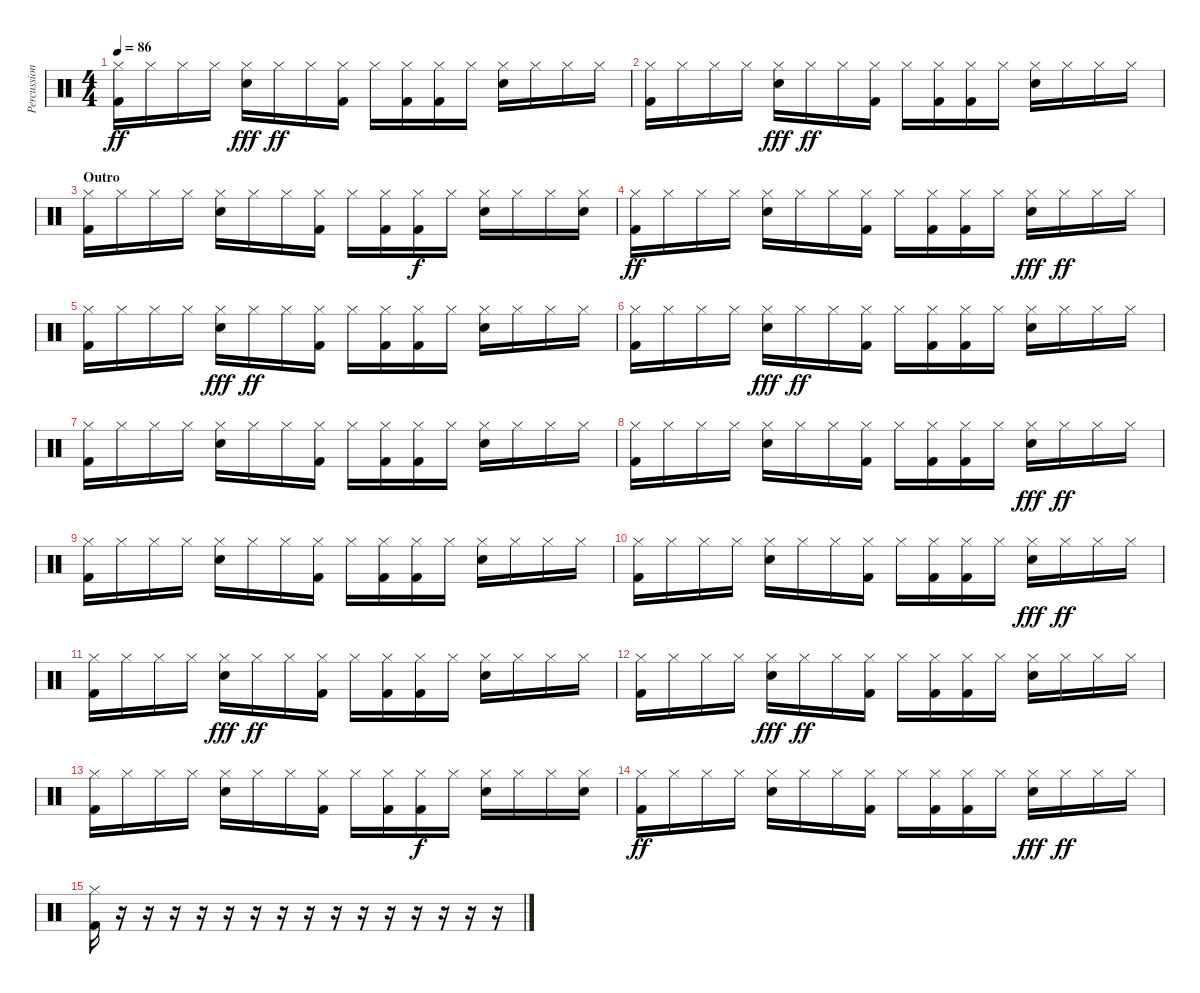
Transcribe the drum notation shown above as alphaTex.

\track ("Percussion" "Percussion") {instrument percussion}
\staff {score}
\articulation defaults
\ts (4 4)
\tempo 86
\clef neutral
\ks c
("Hi-Hat (closed)" "Kick (hit) 2").16{dy ff} "Hi-Hat (closed)".16 "Hi-Hat (closed)".16 "Hi-Hat (closed)".16 ("Snare (hit) 2" "Hi-Hat (closed)").16{dy fff} "Hi-Hat (closed)".16{dy ff} "Hi-Hat (closed)".16 ("Hi-Hat (closed)" "Kick (hit) 2").16 "Hi-Hat (closed)".16 ("Kick (hit) 2" "Hi-Hat (closed)").16 ("Kick (hit) 2" "Hi-Hat (closed)").16 "Hi-Hat (closed)".16 ("Hi-Hat (closed)" "Snare (hit) 2").16 "Hi-Hat (closed)".16 "Hi-Hat (closed)".16 "Hi-Hat (closed)".16 |
("Hi-Hat (closed)" "Kick (hit) 2").16 "Hi-Hat (closed)".16 "Hi-Hat (closed)".16 "Hi-Hat (closed)".16 ("Snare (hit) 2" "Hi-Hat (closed)").16{dy fff} "Hi-Hat (closed)".16{dy ff} "Hi-Hat (closed)".16 ("Hi-Hat (closed)" "Kick (hit) 2").16 "Hi-Hat (closed)".16 ("Kick (hit) 2" "Hi-Hat (closed)").16 ("Kick (hit) 2" "Hi-Hat (closed)").16 "Hi-Hat (closed)".16 ("Hi-Hat (closed)" "Snare (hit) 2").16 "Hi-Hat (closed)".16 "Hi-Hat (closed)".16 "Hi-Hat (closed)".16 |
\section ("" "Outro")
("Hi-Hat (closed)" "Kick (hit) 2").16 "Hi-Hat (closed)".16 "Hi-Hat (closed)".16 "Hi-Hat (closed)".16 ("Hi-Hat (closed)" "Snare (hit) 2").16 "Hi-Hat (closed)".16 "Hi-Hat (closed)".16 ("Hi-Hat (closed)" "Kick (hit) 2").16 "Hi-Hat (closed)".16 ("Hi-Hat (closed)" "Kick (hit) 2").16 ("Hi-Hat (closed)" "Kick (hit) 2").16{dy f} "Hi-Hat (closed)".16 ("Hi-Hat (closed)" "Snare (hit) 2").16 "Hi-Hat (closed)".16 "Hi-Hat (closed)".16 ("Hi-Hat (closed)" "Snare (hit) 2").16 |
("Hi-Hat (closed)" "Kick (hit) 2").16{dy ff} "Hi-Hat (closed)".16 "Hi-Hat (closed)".16 "Hi-Hat (closed)".16 ("Hi-Hat (closed)" "Snare (hit) 2").16 "Hi-Hat (closed)".16 "Hi-Hat (closed)".16 ("Hi-Hat (closed)" "Kick (hit) 2").16 "Hi-Hat (closed)".16 ("Hi-Hat (closed)" "Kick (hit) 2").16 ("Hi-Hat (closed)" "Kick (hit) 2").16 "Hi-Hat (closed)".16 ("Hi-Hat (closed)" "Snare (hit) 2").16{dy fff} "Hi-Hat (closed)".16{dy ff} "Hi-Hat (closed)".16 "Hi-Hat (closed)".16 |
("Hi-Hat (closed)" "Kick (hit) 2").16 "Hi-Hat (closed)".16 "Hi-Hat (closed)".16 "Hi-Hat (closed)".16 ("Snare (hit) 2" "Hi-Hat (closed)").16{dy fff} "Hi-Hat (closed)".16{dy ff} "Hi-Hat (closed)".16 ("Hi-Hat (closed)" "Kick (hit) 2").16 "Hi-Hat (closed)".16 ("Kick (hit) 2" "Hi-Hat (closed)").16 ("Kick (hit) 2" "Hi-Hat (closed)").16 "Hi-Hat (closed)".16 ("Hi-Hat (closed)" "Snare (hit) 2").16 "Hi-Hat (closed)".16 "Hi-Hat (closed)".16 "Hi-Hat (closed)".16 |
("Hi-Hat (closed)" "Kick (hit) 2").16 "Hi-Hat (closed)".16 "Hi-Hat (closed)".16 "Hi-Hat (closed)".16 ("Snare (hit) 2" "Hi-Hat (closed)").16{dy fff} "Hi-Hat (closed)".16{dy ff} "Hi-Hat (closed)".16 ("Hi-Hat (closed)" "Kick (hit) 2").16 "Hi-Hat (closed)".16 ("Kick (hit) 2" "Hi-Hat (closed)").16 ("Kick (hit) 2" "Hi-Hat (closed)").16 "Hi-Hat (closed)".16 ("Hi-Hat (closed)" "Snare (hit) 2").16 "Hi-Hat (closed)".16 "Hi-Hat (closed)".16 "Hi-Hat (closed)".16 |
("Hi-Hat (closed)" "Kick (hit) 2").16 "Hi-Hat (closed)".16 "Hi-Hat (closed)".16 "Hi-Hat (closed)".16 ("Hi-Hat (closed)" "Snare (hit) 2").16 "Hi-Hat (closed)".16 "Hi-Hat (closed)".16 ("Hi-Hat (closed)" "Kick (hit) 2").16 "Hi-Hat (closed)".16 ("Hi-Hat (closed)" "Kick (hit) 2").16 ("Hi-Hat (closed)" "Kick (hit) 2").16 "Hi-Hat (closed)".16 ("Hi-Hat (closed)" "Snare (hit) 2").16 "Hi-Hat (closed)".16 "Hi-Hat (closed)".16 "Hi-Hat (closed)".16 |
("Hi-Hat (closed)" "Kick (hit) 2").16 "Hi-Hat (closed)".16 "Hi-Hat (closed)".16 "Hi-Hat (closed)".16 ("Hi-Hat (closed)" "Snare (hit) 2").16 "Hi-Hat (closed)".16 "Hi-Hat (closed)".16 ("Hi-Hat (closed)" "Kick (hit) 2").16 "Hi-Hat (closed)".16 ("Hi-Hat (closed)" "Kick (hit) 2").16 ("Hi-Hat (closed)" "Kick (hit) 2").16 "Hi-Hat (closed)".16 ("Hi-Hat (closed)" "Snare (hit) 2").16{dy fff} "Hi-Hat (closed)".16{dy ff} "Hi-Hat (closed)".16 "Hi-Hat (closed)".16 |
("Hi-Hat (closed)" "Kick (hit) 2").16 "Hi-Hat (closed)".16 "Hi-Hat (closed)".16 "Hi-Hat (closed)".16 ("Hi-Hat (closed)" "Snare (hit) 2").16 "Hi-Hat (closed)".16 "Hi-Hat (closed)".16 ("Hi-Hat (closed)" "Kick (hit) 2").16 "Hi-Hat (closed)".16 ("Hi-Hat (closed)" "Kick (hit) 2").16 ("Hi-Hat (closed)" "Kick (hit) 2").16 "Hi-Hat (closed)".16 ("Hi-Hat (closed)" "Snare (hit) 2").16 "Hi-Hat (closed)".16 "Hi-Hat (closed)".16 "Hi-Hat (closed)".16 |
("Hi-Hat (closed)" "Kick (hit) 2").16 "Hi-Hat (closed)".16 "Hi-Hat (closed)".16 "Hi-Hat (closed)".16 ("Hi-Hat (closed)" "Snare (hit) 2").16 "Hi-Hat (closed)".16 "Hi-Hat (closed)".16 ("Hi-Hat (closed)" "Kick (hit) 2").16 "Hi-Hat (closed)".16 ("Hi-Hat (closed)" "Kick (hit) 2").16 ("Hi-Hat (closed)" "Kick (hit) 2").16 "Hi-Hat (closed)".16 ("Hi-Hat (closed)" "Snare (hit) 2").16{dy fff} "Hi-Hat (closed)".16{dy ff} "Hi-Hat (closed)".16 "Hi-Hat (closed)".16 |
("Hi-Hat (closed)" "Kick (hit) 2").16 "Hi-Hat (closed)".16 "Hi-Hat (closed)".16 "Hi-Hat (closed)".16 ("Snare (hit) 2" "Hi-Hat (closed)").16{dy fff} "Hi-Hat (closed)".16{dy ff} "Hi-Hat (closed)".16 ("Hi-Hat (closed)" "Kick (hit) 2").16 "Hi-Hat (closed)".16 ("Kick (hit) 2" "Hi-Hat (closed)").16 ("Kick (hit) 2" "Hi-Hat (closed)").16 "Hi-Hat (closed)".16 ("Hi-Hat (closed)" "Snare (hit) 2").16 "Hi-Hat (closed)".16 "Hi-Hat (closed)".16 "Hi-Hat (closed)".16 |
("Hi-Hat (closed)" "Kick (hit) 2").16 "Hi-Hat (closed)".16 "Hi-Hat (closed)".16 "Hi-Hat (closed)".16 ("Snare (hit) 2" "Hi-Hat (closed)").16{dy fff} "Hi-Hat (closed)".16{dy ff} "Hi-Hat (closed)".16 ("Hi-Hat (closed)" "Kick (hit) 2").16 "Hi-Hat (closed)".16 ("Kick (hit) 2" "Hi-Hat (closed)").16 ("Kick (hit) 2" "Hi-Hat (closed)").16 "Hi-Hat (closed)".16 ("Hi-Hat (closed)" "Snare (hit) 2").16 "Hi-Hat (closed)".16 "Hi-Hat (closed)".16 "Hi-Hat (closed)".16 |
("Hi-Hat (closed)" "Kick (hit) 2").16 "Hi-Hat (closed)".16 "Hi-Hat (closed)".16 "Hi-Hat (closed)".16 ("Hi-Hat (closed)" "Snare (hit) 2").16 "Hi-Hat (closed)".16 "Hi-Hat (closed)".16 ("Hi-Hat (closed)" "Kick (hit) 2").16 "Hi-Hat (closed)".16 ("Hi-Hat (closed)" "Kick (hit) 2").16 ("Hi-Hat (closed)" "Kick (hit) 2").16{dy f} "Hi-Hat (closed)".16 ("Hi-Hat (closed)" "Snare (hit) 2").16 "Hi-Hat (closed)".16 "Hi-Hat (closed)".16 ("Hi-Hat (closed)" "Snare (hit) 2").16 |
("Hi-Hat (closed)" "Kick (hit) 2").16{dy ff} "Hi-Hat (closed)".16 "Hi-Hat (closed)".16 "Hi-Hat (closed)".16 ("Hi-Hat (closed)" "Snare (hit) 2").16 "Hi-Hat (closed)".16 "Hi-Hat (closed)".16 ("Hi-Hat (closed)" "Kick (hit) 2").16 "Hi-Hat (closed)".16 ("Hi-Hat (closed)" "Kick (hit) 2").16 ("Hi-Hat (closed)" "Kick (hit) 2").16 "Hi-Hat (closed)".16 ("Hi-Hat (closed)" "Snare (hit) 2").16{dy fff} "Hi-Hat (closed)".16{dy ff} "Hi-Hat (closed)".16 "Hi-Hat (closed)".16 |
("Hi-Hat (closed)" "Kick (hit) 2").16 r.16 r.16 r.16 r.16 r.16 r.16 r.16 r.16 r.16 r.16 r.16 r.16 r.16 r.16 r.16
